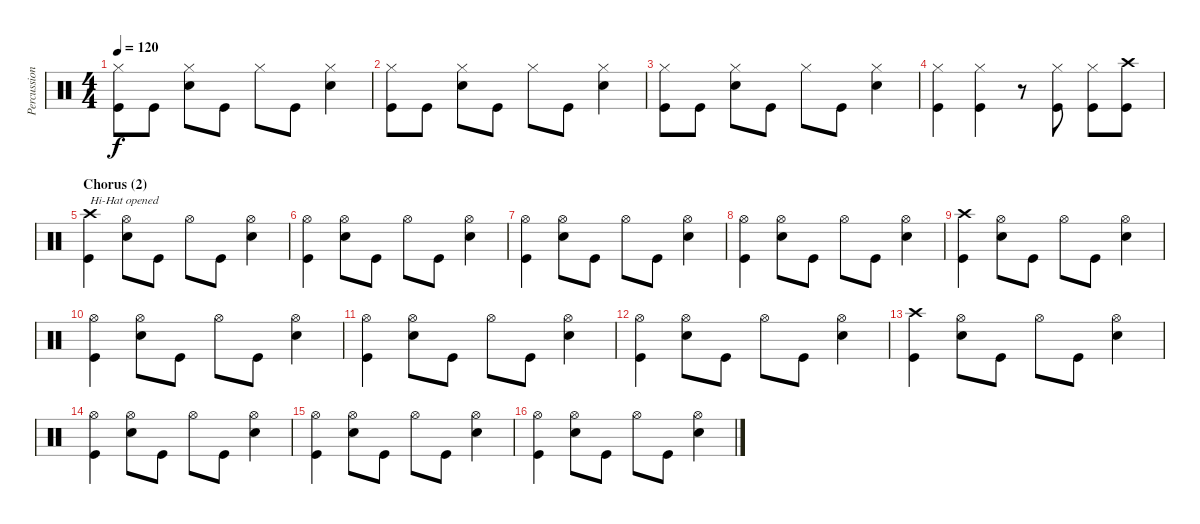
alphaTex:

\track ("Percussion" "Percussion") {instrument percussion}
\staff {score}
\articulation defaults
\ts (4 4)
\tempo 120
\clef neutral
\ks c
("Hi-Hat (closed)" "Kick (hit)").8{dy f} "Kick (hit)".8 ("Hi-Hat (closed)" "Snare (hit) 2").8 "Kick (hit)".8 "Hi-Hat (closed)".8 "Kick (hit)".8 ("Hi-Hat (closed)" "Snare (hit) 2").4 |
("Hi-Hat (closed)" "Kick (hit)").8 "Kick (hit)".8 ("Hi-Hat (closed)" "Snare (hit) 2").8 "Kick (hit)".8 "Hi-Hat (closed)".8 "Kick (hit)".8 ("Hi-Hat (closed)" "Snare (hit) 2").4 |
("Hi-Hat (closed)" "Kick (hit)").8 "Kick (hit)".8 ("Hi-Hat (closed)" "Snare (hit) 2").8 "Kick (hit)".8 "Hi-Hat (closed)".8 "Kick (hit)".8 ("Hi-Hat (closed)" "Snare (hit) 2").4 |
("Hi-Hat (closed)" "Kick (hit)").4 ("Hi-Hat (closed)" "Kick (hit)").4 r.8 ("Hi-Hat (closed)" "Kick (hit)").8 ("Hi-Hat (closed)" "Kick (hit)").8 ("Crash high (hit)" "Kick (hit)").8 |
\section ("" "Chorus (2)")
("Crash high (hit)" "Kick (hit)").4{txt "Hi-Hat opened"} ("Hi-Hat (open)" "Snare (hit) 2").8 "Kick (hit)".8 "Hi-Hat (open)".8 "Kick (hit)".8 ("Hi-Hat (open)" "Snare (hit) 2").4 |
("Hi-Hat (open)" "Kick (hit)").4 ("Hi-Hat (open)" "Snare (hit) 2").8 "Kick (hit)".8 "Hi-Hat (open)".8 "Kick (hit)".8 ("Hi-Hat (open)" "Snare (hit) 2").4 |
("Hi-Hat (open)" "Kick (hit)").4 ("Hi-Hat (open)" "Snare (hit) 2").8 "Kick (hit)".8 "Hi-Hat (open)".8 "Kick (hit)".8 ("Hi-Hat (open)" "Snare (hit) 2").4 |
("Hi-Hat (open)" "Kick (hit)").4 ("Hi-Hat (open)" "Snare (hit) 2").8 "Kick (hit)".8 "Hi-Hat (open)".8 "Kick (hit)".8 ("Hi-Hat (open)" "Snare (hit) 2").4 |
("Crash high (hit)" "Kick (hit)").4 ("Hi-Hat (open)" "Snare (hit) 2").8 "Kick (hit)".8 "Hi-Hat (open)".8 "Kick (hit)".8 ("Hi-Hat (open)" "Snare (hit) 2").4 |
("Hi-Hat (open)" "Kick (hit)").4 ("Hi-Hat (open)" "Snare (hit) 2").8 "Kick (hit)".8 "Hi-Hat (open)".8 "Kick (hit)".8 ("Hi-Hat (open)" "Snare (hit) 2").4 |
("Hi-Hat (open)" "Kick (hit)").4 ("Hi-Hat (open)" "Snare (hit) 2").8 "Kick (hit)".8 "Hi-Hat (open)".8 "Kick (hit)".8 ("Hi-Hat (open)" "Snare (hit) 2").4 |
("Hi-Hat (open)" "Kick (hit)").4 ("Hi-Hat (open)" "Snare (hit) 2").8 "Kick (hit)".8 "Hi-Hat (open)".8 "Kick (hit)".8 ("Hi-Hat (open)" "Snare (hit) 2").4 |
("Crash high (hit)" "Kick (hit)").4 ("Hi-Hat (open)" "Snare (hit) 2").8 "Kick (hit)".8 "Hi-Hat (open)".8 "Kick (hit)".8 ("Hi-Hat (open)" "Snare (hit) 2").4 |
("Hi-Hat (open)" "Kick (hit)").4 ("Hi-Hat (open)" "Snare (hit) 2").8 "Kick (hit)".8 "Hi-Hat (open)".8 "Kick (hit)".8 ("Hi-Hat (open)" "Snare (hit) 2").4 |
("Hi-Hat (open)" "Kick (hit)").4 ("Hi-Hat (open)" "Snare (hit) 2").8 "Kick (hit)".8 "Hi-Hat (open)".8 "Kick (hit)".8 ("Hi-Hat (open)" "Snare (hit) 2").4 |
("Hi-Hat (open)" "Kick (hit)").4 ("Hi-Hat (open)" "Snare (hit) 2").8 "Kick (hit)".8 "Hi-Hat (open)".8 "Kick (hit)".8 ("Hi-Hat (open)" "Snare (hit) 2").4
